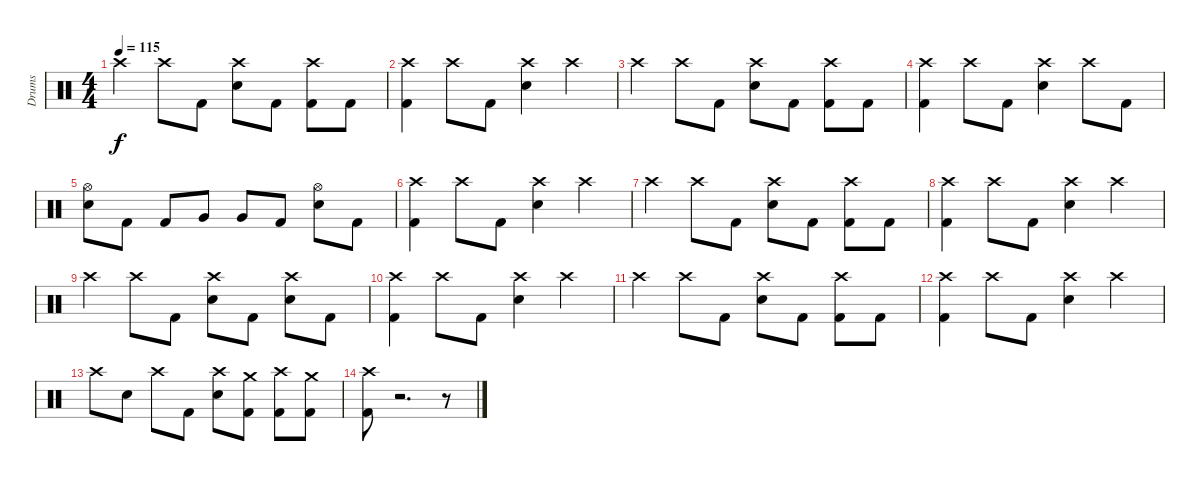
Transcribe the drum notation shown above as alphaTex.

\track ("Drums" "Drums") {instrument percussion}
\staff {score}
\articulation defaults
\ts (4 4)
\tempo 115
\clef neutral
\ks c "Crash high (hit)".4{dy f} "Crash high (hit)".8 "Kick (hit) 2".8
("Crash high (hit)" "Electric Snare (hit)").8 "Kick (hit) 2".8 ("Crash high (hit)" "Kick (hit) 2").8 "Kick (hit) 2".8 |
("Crash high (hit)" "Kick (hit) 2").4 "Crash high (hit)".8 "Kick (hit) 2".8 ("Crash high (hit)" "Electric Snare (hit)").4 "Crash high (hit)".4 |
"Crash high (hit)".4 "Crash high (hit)".8 "Kick (hit) 2".8 ("Crash high (hit)" "Electric Snare (hit)").8 "Kick (hit) 2".8 ("Crash high (hit)" "Kick (hit) 2").8 "Kick (hit) 2".8 |
("Crash high (hit)" "Kick (hit) 2").4 "Crash high (hit)".8 "Kick (hit) 2".8 ("Crash high (hit)" "Electric Snare (hit)").4 "Crash high (hit)".8 "Kick (hit) 2".8 |
("Hi-Hat (open)" "Electric Snare (hit)").8 "Kick (hit) 2".8 "Kick (hit) 2".8 "Very Low Tom (hit)".8 "Very Low Tom (hit)".8 "Kick (hit) 2".8 ("Hi-Hat (open)" "Electric Snare (hit)").8 "Kick (hit) 2".8 |
("Crash high (hit)" "Kick (hit) 2").4 "Crash high (hit)".8 "Kick (hit) 2".8 ("Crash high (hit)" "Electric Snare (hit)").4 "Crash high (hit)".4 |
"Crash high (hit)".4 "Crash high (hit)".8 "Kick (hit) 2".8 ("Crash high (hit)" "Electric Snare (hit)").8 "Kick (hit) 2".8 ("Crash high (hit)" "Kick (hit) 2").8 "Kick (hit) 2".8 |
("Crash high (hit)" "Kick (hit) 2").4 "Crash high (hit)".8 "Kick (hit) 2".8 ("Crash high (hit)" "Electric Snare (hit)").4 "Crash high (hit)".4 |
"Crash high (hit)".4 "Crash high (hit)".8 "Kick (hit) 2".8 ("Crash high (hit)" "Electric Snare (hit)").8 "Kick (hit) 2".8 ("Crash high (hit)" "Electric Snare (hit)").8 "Kick (hit) 2".8 |
("Crash high (hit)" "Kick (hit) 2").4 "Crash high (hit)".8 "Kick (hit) 2".8 ("Crash high (hit)" "Electric Snare (hit)").4 "Crash high (hit)".4 |
"Crash high (hit)".4 "Crash high (hit)".8 "Kick (hit) 2".8 ("Crash high (hit)" "Electric Snare (hit)").8 "Kick (hit) 2".8 ("Crash high (hit)" "Kick (hit) 2").8 "Kick (hit) 2".8 |
("Crash high (hit)" "Kick (hit) 2").4 "Crash high (hit)".8 "Kick (hit) 2".8 ("Crash high (hit)" "Electric Snare (hit)").4 "Crash high (hit)".4 |
"Crash high (hit)".8 "Electric Snare (hit)".8 "Crash high (hit)".8 "Kick (hit) 2".8 ("Crash high (hit)" "Electric Snare (hit)").8 ("Crash medium (hit)" "Kick (hit) 2").8 ("Crash high (hit)" "Kick (hit) 2").8 ("Crash medium (hit)" "Kick (hit) 2").8 |
("Crash high (hit)" "Kick (hit) 2").8 r.2{d volume 0} r.8
